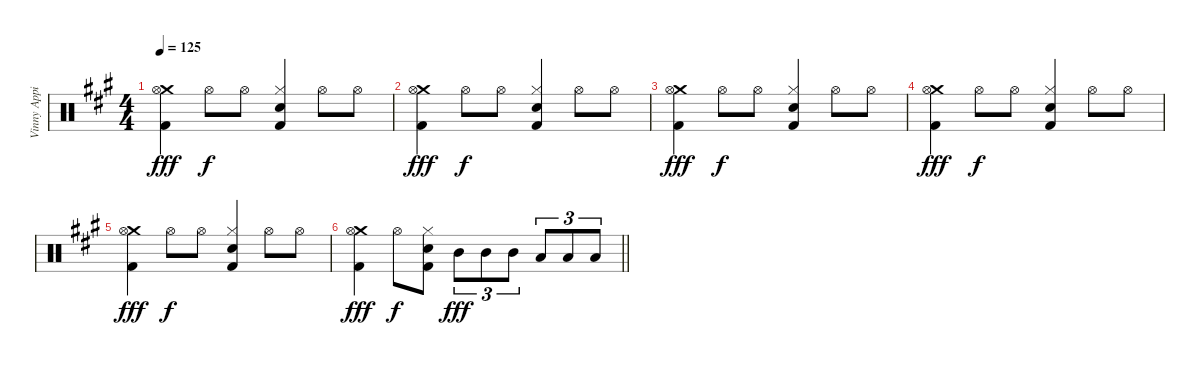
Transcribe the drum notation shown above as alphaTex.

\track ("Vinny Appice" "Vinny Appi") {instrument percussion}
\staff {score}
\articulation defaults
\ts (4 4)
\tempo 125
\clef neutral
\ks a
("Crash medium (hit)" "Hi-Hat (open)" "Kick (hit) 2").4{dy fff} "Hi-Hat (open)".8{dy f} "Hi-Hat (open)".8 ("Hi-Hat (closed)" "Snare (hit) 2" "Kick (hit) 2").4 "Hi-Hat (open)".8 "Hi-Hat (open)".8 |
("Crash medium (hit)" "Hi-Hat (open)" "Kick (hit) 2").4{dy fff} "Hi-Hat (open)".8{dy f} "Hi-Hat (open)".8 ("Hi-Hat (closed)" "Snare (hit) 2" "Kick (hit) 2").4 "Hi-Hat (open)".8 "Hi-Hat (open)".8 |
("Crash medium (hit)" "Hi-Hat (open)" "Kick (hit) 2").4{dy fff} "Hi-Hat (open)".8{dy f} "Hi-Hat (open)".8 ("Hi-Hat (closed)" "Snare (hit) 2" "Kick (hit) 2").4 "Hi-Hat (open)".8 "Hi-Hat (open)".8 |
("Crash medium (hit)" "Hi-Hat (open)" "Kick (hit) 2").4{dy fff} "Hi-Hat (open)".8{dy f} "Hi-Hat (open)".8 ("Hi-Hat (closed)" "Snare (hit) 2" "Kick (hit) 2").4 "Hi-Hat (open)".8 "Hi-Hat (open)".8 |
("Crash medium (hit)" "Hi-Hat (open)" "Kick (hit) 2").4{dy fff} "Hi-Hat (open)".8{dy f} "Hi-Hat (open)".8 ("Hi-Hat (closed)" "Snare (hit) 2" "Kick (hit) 2").4 "Hi-Hat (open)".8 "Hi-Hat (open)".8 |
\barLineRight lightlight
("Crash medium (hit)" "Hi-Hat (open)" "Kick (hit) 2").4{dy fff} "Hi-Hat (open)".8{dy f} ("Hi-Hat (closed)" "Snare (hit) 2" "Kick (hit) 2").8 "Mid Tom (hit)".8{tu (3 2) dy fff} "Mid Tom (hit)".8{tu (3 2)} "Mid Tom (hit)".8{tu (3 2)} "Low Tom (hit)".8{tu (3 2)} "Low Tom (hit)".8{tu (3 2)} "Low Tom (hit)".8{tu (3 2)}
